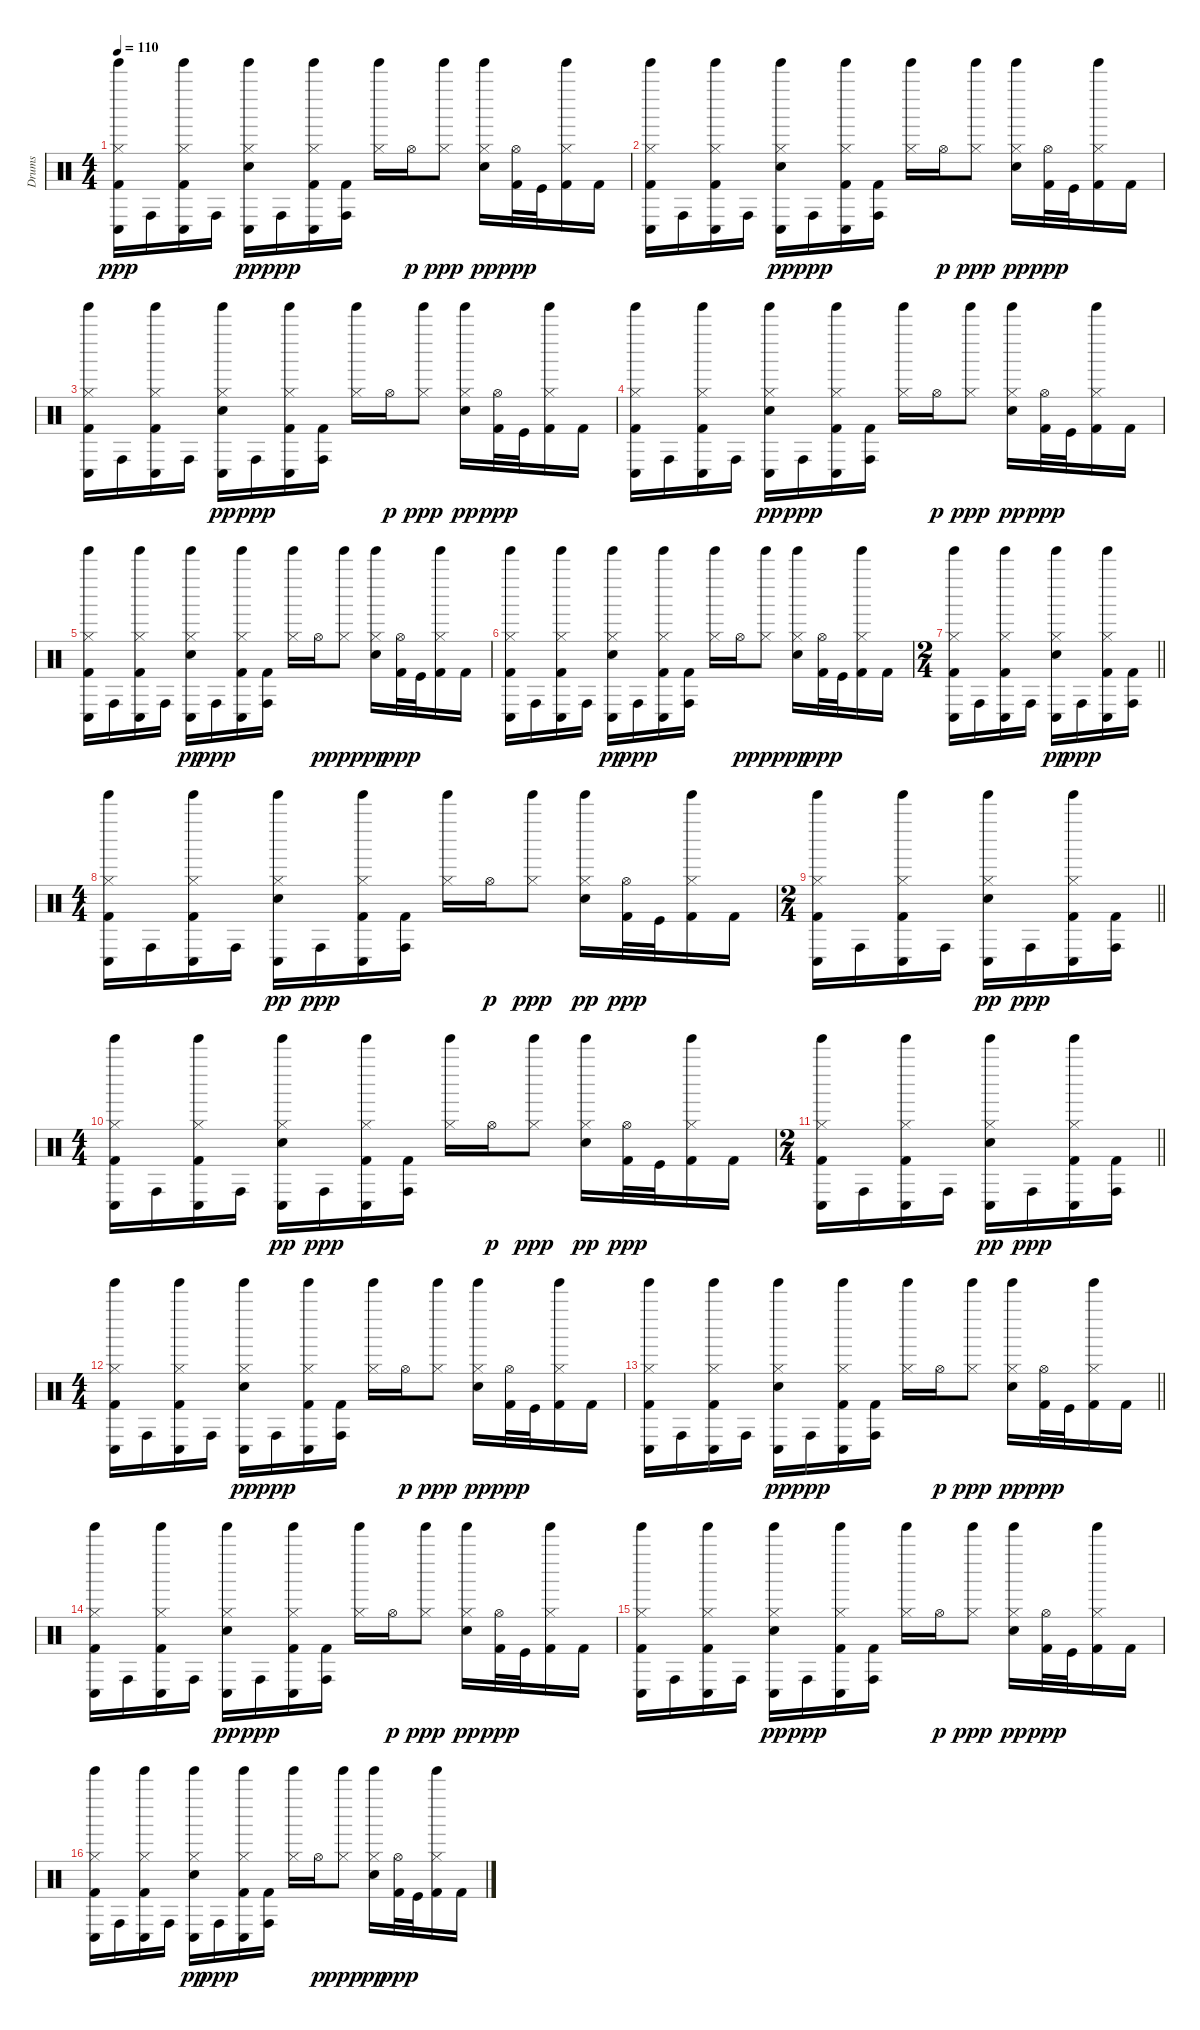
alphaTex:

\track ("Drums" "Drums") {instrument percussion}
\staff {score}
\articulation defaults
\ts (4 4)
\tempo 110
\clef neutral
\ks c
("Tinkle Bell (hit)" "Conga low (hit)" "Hi-Hat (closed)" "Kick (hit) 2").16{dy ppp} "Conga high (hit)".16 ("Tinkle Bell (hit)" "Conga low (hit)" "Hi-Hat (closed)" "Kick (hit) 2").16 "Conga high (hit)".16 ("Tinkle Bell (hit)" "Conga low (hit)" "Hi-Hat (closed)" "Snare (hit) 2").16{dy pp} "Conga high (hit)".16{dy ppp} ("Tinkle Bell (hit)" "Conga low (hit)" "Hi-Hat (closed)" "Kick (hit) 2").16 ("Conga high (hit)" "Kick (hit) 2").16 ("Tinkle Bell (hit)" "Hi-Hat (closed)").16 "Hi-Hat (open)".16{dy p} ("Tinkle Bell (hit)" "Hi-Hat (closed)").8{dy ppp} ("Tinkle Bell (hit)" "Hi-Hat (closed)" "Snare (hit) 2").16{dy pp} ("Hi-Hat (open)" "Kick (hit) 2").32{dy ppp} "Kick (hit)".32 ("Tinkle Bell (hit)" "Hi-Hat (closed)" "Kick (hit) 2").16 "Kick (hit) 2".16 |
("Tinkle Bell (hit)" "Conga low (hit)" "Hi-Hat (closed)" "Kick (hit) 2").16 "Conga high (hit)".16 ("Tinkle Bell (hit)" "Conga low (hit)" "Hi-Hat (closed)" "Kick (hit) 2").16 "Conga high (hit)".16 ("Tinkle Bell (hit)" "Conga low (hit)" "Hi-Hat (closed)" "Snare (hit) 2").16{dy pp} "Conga high (hit)".16{dy ppp} ("Tinkle Bell (hit)" "Conga low (hit)" "Hi-Hat (closed)" "Kick (hit) 2").16 ("Conga high (hit)" "Kick (hit) 2").16 ("Tinkle Bell (hit)" "Hi-Hat (closed)").16 "Hi-Hat (open)".16{dy p} ("Tinkle Bell (hit)" "Hi-Hat (closed)").8{dy ppp} ("Tinkle Bell (hit)" "Hi-Hat (closed)" "Snare (hit) 2").16{dy pp} ("Hi-Hat (open)" "Kick (hit) 2").32{dy ppp} "Kick (hit)".32 ("Tinkle Bell (hit)" "Hi-Hat (closed)" "Kick (hit) 2").16 "Kick (hit) 2".16 |
("Tinkle Bell (hit)" "Conga low (hit)" "Hi-Hat (closed)" "Kick (hit) 2").16 "Conga high (hit)".16 ("Tinkle Bell (hit)" "Conga low (hit)" "Hi-Hat (closed)" "Kick (hit) 2").16 "Conga high (hit)".16 ("Tinkle Bell (hit)" "Conga low (hit)" "Hi-Hat (closed)" "Snare (hit) 2").16{dy pp} "Conga high (hit)".16{dy ppp} ("Tinkle Bell (hit)" "Conga low (hit)" "Hi-Hat (closed)" "Kick (hit) 2").16 ("Conga high (hit)" "Kick (hit) 2").16 ("Tinkle Bell (hit)" "Hi-Hat (closed)").16 "Hi-Hat (open)".16{dy p} ("Tinkle Bell (hit)" "Hi-Hat (closed)").8{dy ppp} ("Tinkle Bell (hit)" "Hi-Hat (closed)" "Snare (hit) 2").16{dy pp} ("Hi-Hat (open)" "Kick (hit) 2").32{dy ppp} "Kick (hit)".32 ("Tinkle Bell (hit)" "Hi-Hat (closed)" "Kick (hit) 2").16 "Kick (hit) 2".16 |
("Tinkle Bell (hit)" "Conga low (hit)" "Hi-Hat (closed)" "Kick (hit) 2").16 "Conga high (hit)".16 ("Tinkle Bell (hit)" "Conga low (hit)" "Hi-Hat (closed)" "Kick (hit) 2").16 "Conga high (hit)".16 ("Tinkle Bell (hit)" "Conga low (hit)" "Hi-Hat (closed)" "Snare (hit) 2").16{dy pp} "Conga high (hit)".16{dy ppp} ("Tinkle Bell (hit)" "Conga low (hit)" "Hi-Hat (closed)" "Kick (hit) 2").16 ("Conga high (hit)" "Kick (hit) 2").16 ("Tinkle Bell (hit)" "Hi-Hat (closed)").16 "Hi-Hat (open)".16{dy p} ("Tinkle Bell (hit)" "Hi-Hat (closed)").8{dy ppp} ("Tinkle Bell (hit)" "Hi-Hat (closed)" "Snare (hit) 2").16{dy pp} ("Hi-Hat (open)" "Kick (hit) 2").32{dy ppp} "Kick (hit)".32 ("Tinkle Bell (hit)" "Hi-Hat (closed)" "Kick (hit) 2").16 "Kick (hit) 2".16 |
("Tinkle Bell (hit)" "Conga low (hit)" "Hi-Hat (closed)" "Kick (hit) 2").16 "Conga high (hit)".16 ("Tinkle Bell (hit)" "Conga low (hit)" "Hi-Hat (closed)" "Kick (hit) 2").16 "Conga high (hit)".16 ("Tinkle Bell (hit)" "Conga low (hit)" "Hi-Hat (closed)" "Snare (hit) 2").16{dy pp} "Conga high (hit)".16{dy ppp} ("Tinkle Bell (hit)" "Conga low (hit)" "Hi-Hat (closed)" "Kick (hit) 2").16 ("Conga high (hit)" "Kick (hit) 2").16 ("Tinkle Bell (hit)" "Hi-Hat (closed)").16 "Hi-Hat (open)".16{dy p} ("Tinkle Bell (hit)" "Hi-Hat (closed)").8{dy ppp} ("Tinkle Bell (hit)" "Hi-Hat (closed)" "Snare (hit) 2").16{dy pp} ("Hi-Hat (open)" "Kick (hit) 2").32{dy ppp} "Kick (hit)".32 ("Tinkle Bell (hit)" "Hi-Hat (closed)" "Kick (hit) 2").16 "Kick (hit) 2".16 |
("Tinkle Bell (hit)" "Conga low (hit)" "Hi-Hat (closed)" "Kick (hit) 2").16 "Conga high (hit)".16 ("Tinkle Bell (hit)" "Conga low (hit)" "Hi-Hat (closed)" "Kick (hit) 2").16 "Conga high (hit)".16 ("Tinkle Bell (hit)" "Conga low (hit)" "Hi-Hat (closed)" "Snare (hit) 2").16{dy pp} "Conga high (hit)".16{dy ppp} ("Tinkle Bell (hit)" "Conga low (hit)" "Hi-Hat (closed)" "Kick (hit) 2").16 ("Conga high (hit)" "Kick (hit) 2").16 ("Tinkle Bell (hit)" "Hi-Hat (closed)").16 "Hi-Hat (open)".16{dy p} ("Tinkle Bell (hit)" "Hi-Hat (closed)").8{dy ppp} ("Tinkle Bell (hit)" "Hi-Hat (closed)" "Snare (hit) 2").16{dy pp} ("Hi-Hat (open)" "Kick (hit) 2").32{dy ppp} "Kick (hit)".32 ("Tinkle Bell (hit)" "Hi-Hat (closed)" "Kick (hit) 2").16 "Kick (hit) 2".16 |
\ts (2 4)
\barLineRight lightlight
("Tinkle Bell (hit)" "Conga low (hit)" "Hi-Hat (closed)" "Kick (hit) 2").16 "Conga high (hit)".16 ("Tinkle Bell (hit)" "Conga low (hit)" "Hi-Hat (closed)" "Kick (hit) 2").16 "Conga high (hit)".16 ("Tinkle Bell (hit)" "Conga low (hit)" "Hi-Hat (closed)" "Snare (hit) 2").16{dy pp} "Conga high (hit)".16{dy ppp} ("Tinkle Bell (hit)" "Conga low (hit)" "Hi-Hat (closed)" "Kick (hit) 2").16 ("Conga high (hit)" "Kick (hit) 2").16 |
\ts (4 4)
("Tinkle Bell (hit)" "Conga low (hit)" "Hi-Hat (closed)" "Kick (hit) 2").16 "Conga high (hit)".16 ("Tinkle Bell (hit)" "Conga low (hit)" "Hi-Hat (closed)" "Kick (hit) 2").16 "Conga high (hit)".16 ("Tinkle Bell (hit)" "Conga low (hit)" "Hi-Hat (closed)" "Snare (hit) 2").16{dy pp} "Conga high (hit)".16{dy ppp} ("Tinkle Bell (hit)" "Conga low (hit)" "Hi-Hat (closed)" "Kick (hit) 2").16 ("Conga high (hit)" "Kick (hit) 2").16 ("Tinkle Bell (hit)" "Hi-Hat (closed)").16 "Hi-Hat (open)".16{dy p} ("Tinkle Bell (hit)" "Hi-Hat (closed)").8{dy ppp} ("Tinkle Bell (hit)" "Hi-Hat (closed)" "Snare (hit) 2").16{dy pp} ("Hi-Hat (open)" "Kick (hit) 2").32{dy ppp} "Kick (hit)".32 ("Tinkle Bell (hit)" "Hi-Hat (closed)" "Kick (hit) 2").16 "Kick (hit) 2".16 |
\ts (2 4)
\barLineRight lightlight
("Tinkle Bell (hit)" "Conga low (hit)" "Hi-Hat (closed)" "Kick (hit) 2").16 "Conga high (hit)".16 ("Tinkle Bell (hit)" "Conga low (hit)" "Hi-Hat (closed)" "Kick (hit) 2").16 "Conga high (hit)".16 ("Tinkle Bell (hit)" "Conga low (hit)" "Hi-Hat (closed)" "Snare (hit) 2").16{dy pp} "Conga high (hit)".16{dy ppp} ("Tinkle Bell (hit)" "Conga low (hit)" "Hi-Hat (closed)" "Kick (hit) 2").16 ("Conga high (hit)" "Kick (hit) 2").16 |
\ts (4 4)
("Tinkle Bell (hit)" "Conga low (hit)" "Hi-Hat (closed)" "Kick (hit) 2").16 "Conga high (hit)".16 ("Tinkle Bell (hit)" "Conga low (hit)" "Hi-Hat (closed)" "Kick (hit) 2").16 "Conga high (hit)".16 ("Tinkle Bell (hit)" "Conga low (hit)" "Hi-Hat (closed)" "Snare (hit) 2").16{dy pp} "Conga high (hit)".16{dy ppp} ("Tinkle Bell (hit)" "Conga low (hit)" "Hi-Hat (closed)" "Kick (hit) 2").16 ("Conga high (hit)" "Kick (hit) 2").16 ("Tinkle Bell (hit)" "Hi-Hat (closed)").16 "Hi-Hat (open)".16{dy p} ("Tinkle Bell (hit)" "Hi-Hat (closed)").8{dy ppp} ("Tinkle Bell (hit)" "Hi-Hat (closed)" "Snare (hit) 2").16{dy pp} ("Hi-Hat (open)" "Kick (hit) 2").32{dy ppp} "Kick (hit)".32 ("Tinkle Bell (hit)" "Hi-Hat (closed)" "Kick (hit) 2").16 "Kick (hit) 2".16 |
\ts (2 4)
\barLineRight lightlight
("Tinkle Bell (hit)" "Conga low (hit)" "Hi-Hat (closed)" "Kick (hit) 2").16 "Conga high (hit)".16 ("Tinkle Bell (hit)" "Conga low (hit)" "Hi-Hat (closed)" "Kick (hit) 2").16 "Conga high (hit)".16 ("Tinkle Bell (hit)" "Conga low (hit)" "Hi-Hat (closed)" "Snare (hit) 2").16{dy pp} "Conga high (hit)".16{dy ppp} ("Tinkle Bell (hit)" "Conga low (hit)" "Hi-Hat (closed)" "Kick (hit) 2").16 ("Conga high (hit)" "Kick (hit) 2").16 |
\ts (4 4)
("Tinkle Bell (hit)" "Conga low (hit)" "Hi-Hat (closed)" "Kick (hit) 2").16 "Conga high (hit)".16 ("Tinkle Bell (hit)" "Conga low (hit)" "Hi-Hat (closed)" "Kick (hit) 2").16 "Conga high (hit)".16 ("Tinkle Bell (hit)" "Conga low (hit)" "Hi-Hat (closed)" "Snare (hit) 2").16{dy pp} "Conga high (hit)".16{dy ppp} ("Tinkle Bell (hit)" "Conga low (hit)" "Hi-Hat (closed)" "Kick (hit) 2").16 ("Conga high (hit)" "Kick (hit) 2").16 ("Tinkle Bell (hit)" "Hi-Hat (closed)").16 "Hi-Hat (open)".16{dy p} ("Tinkle Bell (hit)" "Hi-Hat (closed)").8{dy ppp} ("Tinkle Bell (hit)" "Hi-Hat (closed)" "Snare (hit) 2").16{dy pp} ("Hi-Hat (open)" "Kick (hit) 2").32{dy ppp} "Kick (hit)".32 ("Tinkle Bell (hit)" "Hi-Hat (closed)" "Kick (hit) 2").16 "Kick (hit) 2".16 |
\barLineRight lightlight
("Tinkle Bell (hit)" "Conga low (hit)" "Hi-Hat (closed)" "Kick (hit) 2").16 "Conga high (hit)".16 ("Tinkle Bell (hit)" "Conga low (hit)" "Hi-Hat (closed)" "Kick (hit) 2").16 "Conga high (hit)".16 ("Tinkle Bell (hit)" "Conga low (hit)" "Hi-Hat (closed)" "Snare (hit) 2").16{dy pp} "Conga high (hit)".16{dy ppp} ("Tinkle Bell (hit)" "Conga low (hit)" "Hi-Hat (closed)" "Kick (hit) 2").16 ("Conga high (hit)" "Kick (hit) 2").16 ("Tinkle Bell (hit)" "Hi-Hat (closed)").16 "Hi-Hat (open)".16{dy p} ("Tinkle Bell (hit)" "Hi-Hat (closed)").8{dy ppp} ("Tinkle Bell (hit)" "Hi-Hat (closed)" "Snare (hit) 2").16{dy pp} ("Hi-Hat (open)" "Kick (hit) 2").32{dy ppp} "Kick (hit)".32 ("Tinkle Bell (hit)" "Hi-Hat (closed)" "Kick (hit) 2").16 "Kick (hit) 2".16 |
("Tinkle Bell (hit)" "Conga low (hit)" "Hi-Hat (closed)" "Kick (hit) 2").16 "Conga high (hit)".16 ("Tinkle Bell (hit)" "Conga low (hit)" "Hi-Hat (closed)" "Kick (hit) 2").16 "Conga high (hit)".16 ("Tinkle Bell (hit)" "Conga low (hit)" "Hi-Hat (closed)" "Snare (hit) 2").16{dy pp} "Conga high (hit)".16{dy ppp} ("Tinkle Bell (hit)" "Conga low (hit)" "Hi-Hat (closed)" "Kick (hit) 2").16 ("Conga high (hit)" "Kick (hit) 2").16 ("Tinkle Bell (hit)" "Hi-Hat (closed)").16 "Hi-Hat (open)".16{dy p} ("Tinkle Bell (hit)" "Hi-Hat (closed)").8{dy ppp} ("Tinkle Bell (hit)" "Hi-Hat (closed)" "Snare (hit) 2").16{dy pp} ("Hi-Hat (open)" "Kick (hit) 2").32{dy ppp} "Kick (hit)".32 ("Tinkle Bell (hit)" "Hi-Hat (closed)" "Kick (hit) 2").16 "Kick (hit) 2".16 |
("Tinkle Bell (hit)" "Conga low (hit)" "Hi-Hat (closed)" "Kick (hit) 2").16 "Conga high (hit)".16 ("Tinkle Bell (hit)" "Conga low (hit)" "Hi-Hat (closed)" "Kick (hit) 2").16 "Conga high (hit)".16 ("Tinkle Bell (hit)" "Conga low (hit)" "Hi-Hat (closed)" "Snare (hit) 2").16{dy pp} "Conga high (hit)".16{dy ppp} ("Tinkle Bell (hit)" "Conga low (hit)" "Hi-Hat (closed)" "Kick (hit) 2").16 ("Conga high (hit)" "Kick (hit) 2").16 ("Tinkle Bell (hit)" "Hi-Hat (closed)").16 "Hi-Hat (open)".16{dy p} ("Tinkle Bell (hit)" "Hi-Hat (closed)").8{dy ppp} ("Tinkle Bell (hit)" "Hi-Hat (closed)" "Snare (hit) 2").16{dy pp} ("Hi-Hat (open)" "Kick (hit) 2").32{dy ppp} "Kick (hit)".32 ("Tinkle Bell (hit)" "Hi-Hat (closed)" "Kick (hit) 2").16 "Kick (hit) 2".16 |
("Tinkle Bell (hit)" "Conga low (hit)" "Hi-Hat (closed)" "Kick (hit) 2").16 "Conga high (hit)".16 ("Tinkle Bell (hit)" "Conga low (hit)" "Hi-Hat (closed)" "Kick (hit) 2").16 "Conga high (hit)".16 ("Tinkle Bell (hit)" "Conga low (hit)" "Hi-Hat (closed)" "Snare (hit) 2").16{dy pp} "Conga high (hit)".16{dy ppp} ("Tinkle Bell (hit)" "Conga low (hit)" "Hi-Hat (closed)" "Kick (hit) 2").16 ("Conga high (hit)" "Kick (hit) 2").16 ("Tinkle Bell (hit)" "Hi-Hat (closed)").16 "Hi-Hat (open)".16{dy p} ("Tinkle Bell (hit)" "Hi-Hat (closed)").8{dy ppp} ("Tinkle Bell (hit)" "Hi-Hat (closed)" "Snare (hit) 2").16{dy pp} ("Hi-Hat (open)" "Kick (hit) 2").32{dy ppp} "Kick (hit)".32 ("Tinkle Bell (hit)" "Hi-Hat (closed)" "Kick (hit) 2").16 "Kick (hit) 2".16
